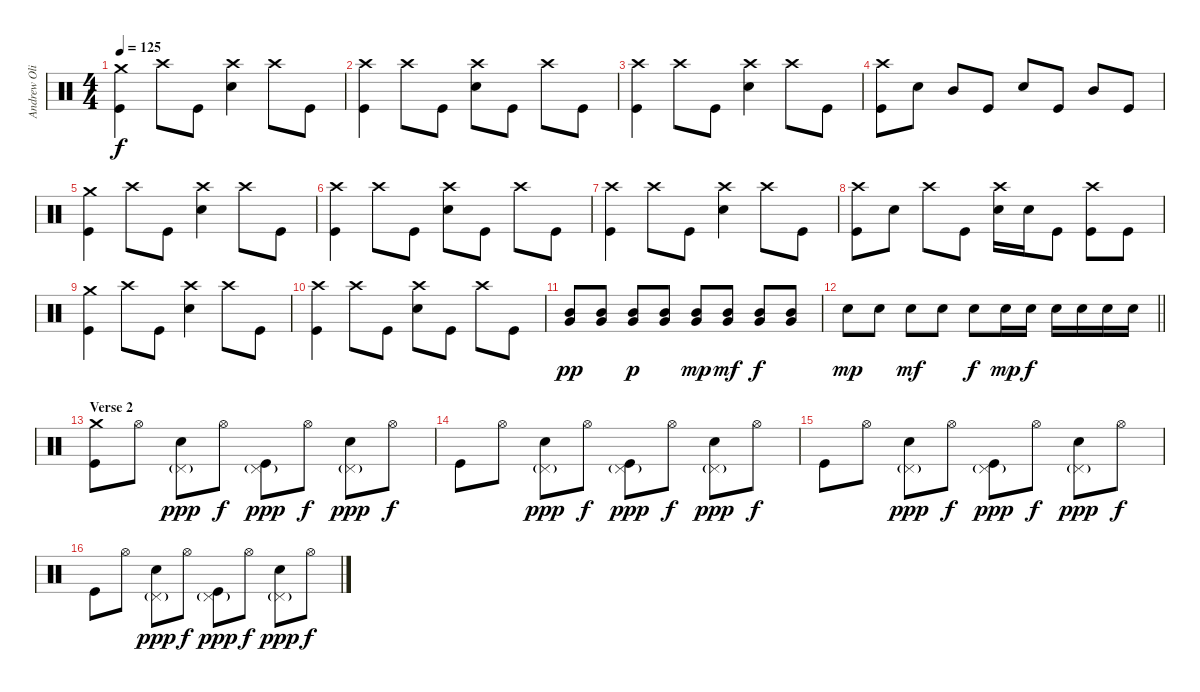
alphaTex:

\track ("Andrew Oliver" "Andrew Oli") {instrument percussion}
\staff {score}
\articulation defaults
\ts (4 4)
\tempo 125
\clef neutral
\ks c
("Crash medium (hit)" "Kick (hit)").4{dy f} "Crash high (hit)".8 "Kick (hit)".8 ("Crash high (hit)" "Electric Snare (hit)").4 "Crash high (hit)".8 "Kick (hit)".8 |
("Crash high (hit)" "Kick (hit)").4 "Crash high (hit)".8 "Kick (hit)".8 ("Crash high (hit)" "Electric Snare (hit)").8 "Kick (hit)".8 "Crash high (hit)".8 "Kick (hit)".8 |
("Crash high (hit)" "Kick (hit)").4 "Crash high (hit)".8 "Kick (hit)".8 ("Crash high (hit)" "Electric Snare (hit)").4 "Crash high (hit)".8 "Kick (hit)".8 |
("Crash high (hit)" "Kick (hit)").8 "Electric Snare (hit)".8 "Mid Tom (hit)".8 "Kick (hit)".8 "Electric Snare (hit)".8 "Kick (hit)".8 "Mid Tom (hit)".8 "Kick (hit)".8 |
("Crash medium (hit)" "Kick (hit)").4 "Crash high (hit)".8 "Kick (hit)".8 ("Crash high (hit)" "Electric Snare (hit)").4 "Crash high (hit)".8 "Kick (hit)".8 |
("Crash high (hit)" "Kick (hit)").4 "Crash high (hit)".8 "Kick (hit)".8 ("Crash high (hit)" "Electric Snare (hit)").8 "Kick (hit)".8 "Crash high (hit)".8 "Kick (hit)".8 |
("Crash high (hit)" "Kick (hit)").4 "Crash high (hit)".8 "Kick (hit)".8 ("Crash high (hit)" "Electric Snare (hit)").4 "Crash high (hit)".8 "Kick (hit)".8 |
("Crash high (hit)" "Kick (hit)").8 "Electric Snare (hit)".8 "Crash high (hit)".8 "Kick (hit)".8 ("Crash high (hit)" "Electric Snare (hit)").16 "Electric Snare (hit)".16 "Kick (hit)".8 ("Crash high (hit)" "Kick (hit)").8 "Kick (hit)".8 |
("Crash medium (hit)" "Kick (hit)").4 "Crash high (hit)".8 "Kick (hit)".8 ("Crash high (hit)" "Electric Snare (hit)").4 "Crash high (hit)".8 "Kick (hit)".8 |
("Crash high (hit)" "Kick (hit)").4 "Crash high (hit)".8 "Kick (hit)".8 ("Crash high (hit)" "Electric Snare (hit)").8 "Kick (hit)".8 "Crash high (hit)".8 "Kick (hit)".8 |
("Very Low Tom (hit)" "Mid Tom (hit)").8{dy pp} ("Very Low Tom (hit)" "Mid Tom (hit)").8 ("Very Low Tom (hit)" "Mid Tom (hit)").8{dy p} ("Very Low Tom (hit)" "Mid Tom (hit)").8 ("Very Low Tom (hit)" "Mid Tom (hit)").8{dy mp} ("Very Low Tom (hit)" "Mid Tom (hit)").8{dy mf} ("Very Low Tom (hit)" "Mid Tom (hit)").8{dy f} ("Very Low Tom (hit)" "Mid Tom (hit)").8 |
\barLineRight lightlight "Electric Snare (hit)".8{dy mp} "Electric Snare (hit)".8 "Electric Snare (hit)".8{dy mf} "Electric Snare (hit)".8 "Electric Snare (hit)".8{dy f} "Electric Snare (hit)".16{dy mp} "Electric Snare (hit)".16{dy f} "Electric Snare (hit)".16 "Electric Snare (hit)".16 "Electric Snare (hit)".16 "Electric Snare (hit)".16
|
\section ("" "Verse 2")
("Crash medium (hit)" "Kick (hit)").8 "Hi-Hat (open)".8 ("Pedal Hi-Hat (hit)"{g} "Electric Snare (hit)").8{dy ppp} "Hi-Hat (open)".8{dy f} ("Pedal Hi-Hat (hit)"{g} "Kick (hit)").8{dy ppp} "Hi-Hat (open)".8{dy f} ("Pedal Hi-Hat (hit)"{g} "Electric Snare (hit)").8{dy ppp} "Hi-Hat (open)".8{dy f} |
"Kick (hit)".8 "Hi-Hat (open)".8 ("Pedal Hi-Hat (hit)"{g} "Electric Snare (hit)").8{dy ppp} "Hi-Hat (open)".8{dy f} ("Pedal Hi-Hat (hit)"{g} "Kick (hit)").8{dy ppp} "Hi-Hat (open)".8{dy f} ("Pedal Hi-Hat (hit)"{g} "Electric Snare (hit)").8{dy ppp} "Hi-Hat (open)".8{dy f} |
"Kick (hit)".8 "Hi-Hat (open)".8 ("Pedal Hi-Hat (hit)"{g} "Electric Snare (hit)").8{dy ppp} "Hi-Hat (open)".8{dy f} ("Pedal Hi-Hat (hit)"{g} "Kick (hit)").8{dy ppp} "Hi-Hat (open)".8{dy f} ("Pedal Hi-Hat (hit)"{g} "Electric Snare (hit)").8{dy ppp} "Hi-Hat (open)".8{dy f} |
"Kick (hit)".8 "Hi-Hat (open)".8 ("Pedal Hi-Hat (hit)"{g} "Electric Snare (hit)").8{dy ppp} "Hi-Hat (open)".8{dy f} ("Pedal Hi-Hat (hit)"{g} "Kick (hit)").8{dy ppp} "Hi-Hat (open)".8{dy f} ("Pedal Hi-Hat (hit)"{g} "Electric Snare (hit)").8{dy ppp} "Hi-Hat (open)".8{dy f}
